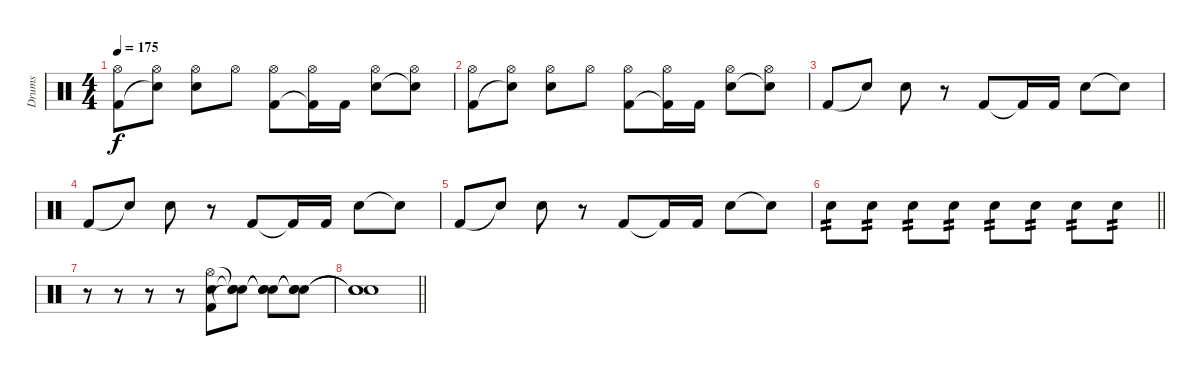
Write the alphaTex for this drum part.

\track ("Drums" "Drums") {instrument percussion}
\staff {score}
\articulation defaults
\ts (4 4)
\tempo 175
\clef neutral
\ks c
("Hi-Hat (open)" "Kick (hit) 2").8{dy f} ("Hi-Hat (open)" "Snare (hit)"{t}).8 ("Hi-Hat (open)" "Electric Snare (hit)").8 "Hi-Hat (open)".8 ("Hi-Hat (open)" "Kick (hit) 2").8 ("Hi-Hat (open)" "Kick (hit) 2"{t}).16 "Kick (hit) 2".16 ("Hi-Hat (open)" "Electric Snare (hit)").8 ("Hi-Hat (open)" "Snare (hit)"{t}).8 |
("Hi-Hat (open)" "Kick (hit) 2").8 ("Hi-Hat (open)" "Snare (hit)"{t}).8 ("Hi-Hat (open)" "Electric Snare (hit)").8 "Hi-Hat (open)".8 ("Hi-Hat (open)" "Kick (hit) 2").8 ("Hi-Hat (open)" "Kick (hit) 2"{t}).16 "Kick (hit) 2".16 ("Hi-Hat (open)" "Electric Snare (hit)").8 ("Hi-Hat (open)" "Snare (hit)"{t}).8 |
"Kick (hit) 2".8 "Snare (hit)"{t}.8 "Electric Snare (hit)".8 r.8 "Kick (hit) 2".8 "Kick (hit) 2"{t}.16 "Kick (hit) 2".16 "Electric Snare (hit)".8 "Snare (hit)"{t}.8 |
"Kick (hit) 2".8 "Snare (hit)"{t}.8 "Electric Snare (hit)".8 r.8 "Kick (hit) 2".8 "Kick (hit) 2"{t}.16 "Kick (hit) 2".16 "Electric Snare (hit)".8 "Snare (hit)"{t}.8 |
"Kick (hit) 2".8 "Snare (hit)"{t}.8 "Electric Snare (hit)".8 r.8 "Kick (hit) 2".8 "Kick (hit) 2"{t}.16 "Kick (hit) 2".16 "Electric Snare (hit)".8 "Snare (hit)"{t}.8 |
\barLineRight lightlight "Electric Snare (hit)".8{tp 2} "Electric Snare (hit)".8{tp 2} "Electric Snare (hit)".8{tp 2} "Electric Snare (hit)".8{tp 2} "Electric Snare (hit)".8{tp 2} "Electric Snare (hit)".8{tp 2} "Electric Snare (hit)".8{tp 2} "Electric Snare (hit)".8{tp 2}
|
r.8 r.8 r.8 r.8 ("Hi-Hat (open)" "Electric Snare (hit)" "Kick (hit) 2").8 ("Snare (hit)"{t} "Snare (hit)"{t} "Snare (hit)"{t}).8 ("Snare (hit)"{t} "Snare (hit)"{t} "Snare (hit)"{t}).8 ("Snare (hit)"{t} "Snare (hit)"{t} "Snare (hit)"{t}).8 |
\barLineRight lightlight
("Snare (hit)"{t} "Snare (hit)"{t} "Snare (hit)"{t}).1
